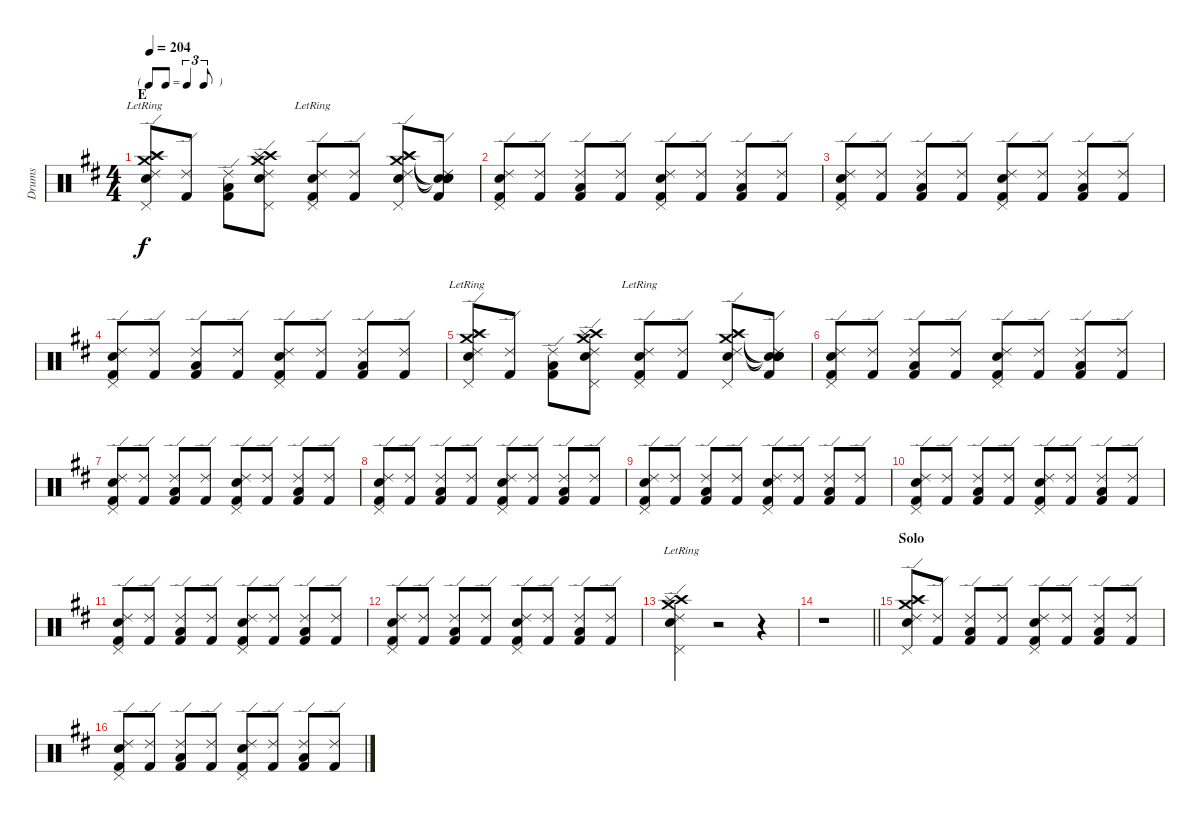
\track ("Drums" "Drums") {instrument percussion}
\staff {score}
\articulation defaults
\ts (4 4)
\tf triplet8th
\section ("" "E")
\tempo 204
\clef neutral
\ks d
("Ride (edge) 2" "Crash medium (hit)" "Crash high (hit)"{lr} "Pedal Hi-Hat (hit)"{lr} "Splash (hit)"{lr} "Snare (hit) 2"{lr}).8{dy f} ("Kick (hit) 2" "Ride (edge) 2").8 ("Low Floor Tom (hit)" "Ride (edge) 2" "Kick (hit) 2").8 ("Ride (edge) 2" "Crash medium (hit)" "Crash high (hit)" "Pedal Hi-Hat (hit)" "Splash (hit)" "Snare (hit) 2").8 ("Kick (hit) 2"{lr} "Snare (hit) 2"{lr} "Ride (edge) 2"{lr} "Pedal Hi-Hat (hit)"{lr}).8 ("Kick (hit) 2" "Ride (edge) 2").8 ("Ride (edge) 2" "Crash medium (hit)" "Crash high (hit)" "Pedal Hi-Hat (hit)" "Splash (hit)" "Snare (hit) 2").8 ("Snare (hit)"{t} "Snare (hit)"{t} "Snare (hit)"{t} "Kick (hit) 2" "Ride (edge) 2" "Snare (hit)"{t}).8 |
("Kick (hit) 2" "Snare (hit) 2" "Ride (edge) 2" "Pedal Hi-Hat (hit)").8 ("Kick (hit) 2" "Ride (edge) 2").8 ("Low Floor Tom (hit)" "Ride (edge) 2" "Kick (hit) 2").8 ("Kick (hit) 2" "Ride (edge) 2").8 ("Kick (hit) 2" "Snare (hit) 2" "Ride (edge) 2" "Pedal Hi-Hat (hit)").8 ("Kick (hit) 2" "Ride (edge) 2").8 ("Low Floor Tom (hit)" "Ride (edge) 2" "Kick (hit) 2").8 ("Kick (hit) 2" "Ride (edge) 2").8 |
("Kick (hit) 2" "Snare (hit) 2" "Ride (edge) 2" "Pedal Hi-Hat (hit)").8 ("Kick (hit) 2" "Ride (edge) 2").8 ("Low Floor Tom (hit)" "Ride (edge) 2" "Kick (hit) 2").8 ("Kick (hit) 2" "Ride (edge) 2").8 ("Kick (hit) 2" "Snare (hit) 2" "Ride (edge) 2" "Pedal Hi-Hat (hit)").8 ("Kick (hit) 2" "Ride (edge) 2").8 ("Low Floor Tom (hit)" "Ride (edge) 2" "Kick (hit) 2").8 ("Kick (hit) 2" "Ride (edge) 2").8 |
("Kick (hit) 2" "Snare (hit) 2" "Ride (edge) 2" "Pedal Hi-Hat (hit)").8 ("Kick (hit) 2" "Ride (edge) 2").8 ("Low Floor Tom (hit)" "Ride (edge) 2" "Kick (hit) 2").8 ("Kick (hit) 2" "Ride (edge) 2").8 ("Kick (hit) 2" "Snare (hit) 2" "Ride (edge) 2" "Pedal Hi-Hat (hit)").8 ("Kick (hit) 2" "Ride (edge) 2").8 ("Low Floor Tom (hit)" "Ride (edge) 2" "Kick (hit) 2").8 ("Kick (hit) 2" "Ride (edge) 2").8 |
("Ride (edge) 2" "Crash medium (hit)" "Crash high (hit)"{lr} "Pedal Hi-Hat (hit)"{lr} "Splash (hit)"{lr} "Snare (hit) 2"{lr}).8 ("Kick (hit) 2" "Ride (edge) 2").8 ("Low Floor Tom (hit)" "Ride (edge) 2" "Kick (hit) 2").8 ("Ride (edge) 2" "Crash medium (hit)" "Crash high (hit)" "Pedal Hi-Hat (hit)" "Splash (hit)" "Snare (hit) 2").8 ("Kick (hit) 2"{lr} "Snare (hit) 2"{lr} "Ride (edge) 2"{lr} "Pedal Hi-Hat (hit)"{lr}).8 ("Kick (hit) 2" "Ride (edge) 2").8 ("Ride (edge) 2" "Crash medium (hit)" "Crash high (hit)" "Pedal Hi-Hat (hit)" "Splash (hit)" "Snare (hit) 2").8 ("Snare (hit)"{t} "Snare (hit)"{t} "Snare (hit)"{t} "Kick (hit) 2" "Ride (edge) 2" "Snare (hit)"{t}).8 |
("Kick (hit) 2" "Snare (hit) 2" "Ride (edge) 2" "Pedal Hi-Hat (hit)").8 ("Kick (hit) 2" "Ride (edge) 2").8 ("Low Floor Tom (hit)" "Ride (edge) 2" "Kick (hit) 2").8 ("Kick (hit) 2" "Ride (edge) 2").8 ("Kick (hit) 2" "Snare (hit) 2" "Ride (edge) 2" "Pedal Hi-Hat (hit)").8 ("Kick (hit) 2" "Ride (edge) 2").8 ("Low Floor Tom (hit)" "Ride (edge) 2" "Kick (hit) 2").8 ("Kick (hit) 2" "Ride (edge) 2").8 |
("Kick (hit) 2" "Snare (hit) 2" "Ride (edge) 2" "Pedal Hi-Hat (hit)").8 ("Kick (hit) 2" "Ride (edge) 2").8 ("Low Floor Tom (hit)" "Ride (edge) 2" "Kick (hit) 2").8 ("Kick (hit) 2" "Ride (edge) 2").8 ("Kick (hit) 2" "Snare (hit) 2" "Ride (edge) 2" "Pedal Hi-Hat (hit)").8 ("Kick (hit) 2" "Ride (edge) 2").8 ("Low Floor Tom (hit)" "Ride (edge) 2" "Kick (hit) 2").8 ("Kick (hit) 2" "Ride (edge) 2").8 |
("Kick (hit) 2" "Snare (hit) 2" "Ride (edge) 2" "Pedal Hi-Hat (hit)").8 ("Kick (hit) 2" "Ride (edge) 2").8 ("Low Floor Tom (hit)" "Ride (edge) 2" "Kick (hit) 2").8 ("Kick (hit) 2" "Ride (edge) 2").8 ("Kick (hit) 2" "Snare (hit) 2" "Ride (edge) 2" "Pedal Hi-Hat (hit)").8 ("Kick (hit) 2" "Ride (edge) 2").8 ("Low Floor Tom (hit)" "Ride (edge) 2" "Kick (hit) 2").8 ("Kick (hit) 2" "Ride (edge) 2").8 |
("Kick (hit) 2" "Snare (hit) 2" "Ride (edge) 2" "Pedal Hi-Hat (hit)").8 ("Kick (hit) 2" "Ride (edge) 2").8 ("Low Floor Tom (hit)" "Ride (edge) 2" "Kick (hit) 2").8 ("Kick (hit) 2" "Ride (edge) 2").8 ("Kick (hit) 2" "Snare (hit) 2" "Ride (edge) 2" "Pedal Hi-Hat (hit)").8 ("Kick (hit) 2" "Ride (edge) 2").8 ("Low Floor Tom (hit)" "Ride (edge) 2" "Kick (hit) 2").8 ("Kick (hit) 2" "Ride (edge) 2").8 |
("Kick (hit) 2" "Snare (hit) 2" "Ride (edge) 2" "Pedal Hi-Hat (hit)").8 ("Kick (hit) 2" "Ride (edge) 2").8 ("Low Floor Tom (hit)" "Ride (edge) 2" "Kick (hit) 2").8 ("Kick (hit) 2" "Ride (edge) 2").8 ("Kick (hit) 2" "Snare (hit) 2" "Ride (edge) 2" "Pedal Hi-Hat (hit)").8 ("Kick (hit) 2" "Ride (edge) 2").8 ("Low Floor Tom (hit)" "Ride (edge) 2" "Kick (hit) 2").8 ("Kick (hit) 2" "Ride (edge) 2").8 |
("Kick (hit) 2" "Snare (hit) 2" "Ride (edge) 2" "Pedal Hi-Hat (hit)").8 ("Kick (hit) 2" "Ride (edge) 2").8 ("Low Floor Tom (hit)" "Ride (edge) 2" "Kick (hit) 2").8 ("Kick (hit) 2" "Ride (edge) 2").8 ("Kick (hit) 2" "Snare (hit) 2" "Ride (edge) 2" "Pedal Hi-Hat (hit)").8 ("Kick (hit) 2" "Ride (edge) 2").8 ("Low Floor Tom (hit)" "Ride (edge) 2" "Kick (hit) 2").8 ("Kick (hit) 2" "Ride (edge) 2").8 |
("Kick (hit) 2" "Snare (hit) 2" "Ride (edge) 2" "Pedal Hi-Hat (hit)").8 ("Kick (hit) 2" "Ride (edge) 2").8 ("Low Floor Tom (hit)" "Ride (edge) 2" "Kick (hit) 2").8 ("Kick (hit) 2" "Ride (edge) 2").8 ("Kick (hit) 2" "Snare (hit) 2" "Ride (edge) 2" "Pedal Hi-Hat (hit)").8 ("Kick (hit) 2" "Ride (edge) 2").8 ("Low Floor Tom (hit)" "Ride (edge) 2" "Kick (hit) 2").8 ("Kick (hit) 2" "Ride (edge) 2").8 |
("Ride (edge) 2"{lr} "Crash medium (hit)"{lr} "Crash high (hit)"{lr} "Pedal Hi-Hat (hit)"{lr} "Splash (hit)"{lr} "Snare (hit) 2"{lr}).4 r.2 r.4 |
\barLineRight lightlight
r.1 |
\section ("" "Solo")
("Ride (edge) 2" "Crash medium (hit)" "Crash high (hit)" "Pedal Hi-Hat (hit)" "Splash (hit)" "Snare (hit) 2").8 ("Kick (hit) 2" "Ride (edge) 2").8 ("Low Floor Tom (hit)" "Ride (edge) 2" "Kick (hit) 2").8 ("Kick (hit) 2" "Ride (edge) 2").8 ("Kick (hit) 2" "Snare (hit) 2" "Ride (edge) 2" "Pedal Hi-Hat (hit)").8 ("Kick (hit) 2" "Ride (edge) 2").8 ("Low Floor Tom (hit)" "Ride (edge) 2" "Kick (hit) 2").8 ("Kick (hit) 2" "Ride (edge) 2").8 |
("Kick (hit) 2" "Snare (hit) 2" "Ride (edge) 2" "Pedal Hi-Hat (hit)").8 ("Kick (hit) 2" "Ride (edge) 2").8 ("Low Floor Tom (hit)" "Ride (edge) 2" "Kick (hit) 2").8 ("Kick (hit) 2" "Ride (edge) 2").8 ("Kick (hit) 2" "Snare (hit) 2" "Ride (edge) 2" "Pedal Hi-Hat (hit)").8 ("Kick (hit) 2" "Ride (edge) 2").8 ("Low Floor Tom (hit)" "Ride (edge) 2" "Kick (hit) 2").8 ("Kick (hit) 2" "Ride (edge) 2").8
